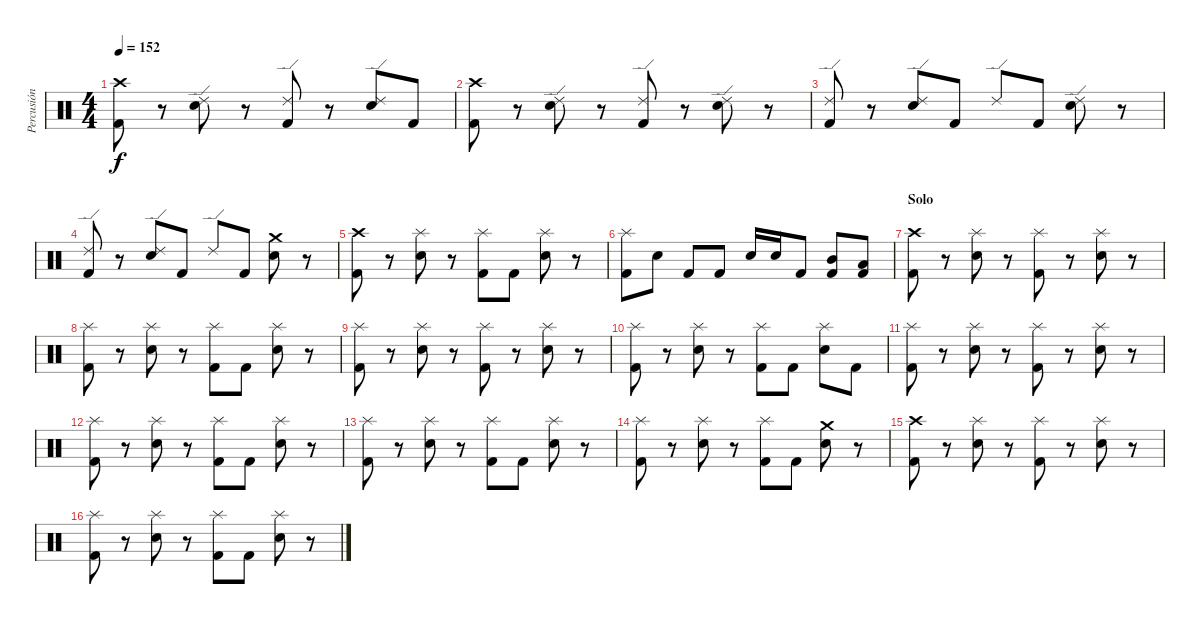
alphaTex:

\track ("Percusión" "Percusión") {instrument percussion}
\staff {score}
\articulation defaults
\ts (4 4)
\tempo 152
\clef neutral
\ks c
("Crash high (hit)" "Kick (hit) 2").8{dy f} r.8 ("Ride (edge) 2" "Snare (hit) 2").8 r.8 ("Ride (edge) 2" "Kick (hit) 2").8 r.8 ("Ride (edge) 2" "Snare (hit) 2").8 "Kick (hit) 2".8 |
("Crash high (hit)" "Kick (hit) 2").8 r.8 ("Ride (edge) 2" "Snare (hit) 2").8 r.8 ("Ride (edge) 2" "Kick (hit) 2").8 r.8 ("Ride (edge) 2" "Snare (hit) 2").8 r.8 |
("Ride (edge) 2" "Kick (hit) 2").8 r.8 ("Ride (edge) 2" "Snare (hit) 2").8 "Kick (hit) 2".8 "Ride (edge) 2".8 "Kick (hit) 2".8 ("Ride (edge) 2" "Snare (hit) 2").8 r.8 |
("Ride (edge) 2" "Kick (hit) 2").8 r.8 ("Ride (edge) 2" "Snare (hit) 2").8 "Kick (hit) 2".8 "Ride (edge) 2".8 "Kick (hit) 2".8 ("Crash medium (hit)" "Snare (hit) 2").8 r.8 |
("Crash high (hit)" "Kick (hit) 2").8 r.8 ("Splash (hit)" "Snare (hit) 2").8 r.8 ("Splash (hit)" "Kick (hit) 2").8 "Kick (hit) 2".8 ("Splash (hit)" "Snare (hit) 2").8 r.8 |
("Splash (hit)" "Kick (hit) 2").8 "Snare (hit) 2".8 "Kick (hit) 2".8 "Kick (hit) 2".8 "Snare (hit) 2".16 "Snare (hit) 2".16 "Kick (hit) 2".8 ("Mid Tom (hit)" "Kick (hit) 2").8 ("Low Tom (hit)" "Kick (hit) 2").8 |
\section ("" "Solo")
("Crash high (hit)" "Kick (hit) 2").8 r.8 ("Splash (hit)" "Snare (hit) 2").8 r.8 ("Splash (hit)" "Kick (hit) 2").8 r.8 ("Splash (hit)" "Snare (hit) 2").8 r.8 |
("Splash (hit)" "Kick (hit) 2").8 r.8 ("Splash (hit)" "Snare (hit) 2").8 r.8 ("Splash (hit)" "Kick (hit) 2").8 "Kick (hit) 2".8 ("Splash (hit)" "Snare (hit) 2").8 r.8 |
("Splash (hit)" "Kick (hit) 2").8 r.8 ("Splash (hit)" "Snare (hit) 2").8 r.8 ("Splash (hit)" "Kick (hit) 2").8 r.8 ("Splash (hit)" "Snare (hit) 2").8 r.8 |
("Splash (hit)" "Kick (hit) 2").8 r.8 ("Splash (hit)" "Snare (hit) 2").8 r.8 ("Splash (hit)" "Kick (hit) 2").8 "Kick (hit) 2".8 ("Splash (hit)" "Snare (hit) 2").8 "Kick (hit) 2".8 |
("Splash (hit)" "Kick (hit) 2").8 r.8 ("Splash (hit)" "Snare (hit) 2").8 r.8 ("Splash (hit)" "Kick (hit) 2").8 r.8 ("Splash (hit)" "Snare (hit) 2").8 r.8 |
("Splash (hit)" "Kick (hit) 2").8 r.8 ("Splash (hit)" "Snare (hit) 2").8 r.8 ("Splash (hit)" "Kick (hit) 2").8 "Kick (hit) 2".8 ("Splash (hit)" "Snare (hit) 2").8 r.8 |
("Splash (hit)" "Kick (hit) 2").8 r.8 ("Splash (hit)" "Snare (hit) 2").8 r.8 ("Splash (hit)" "Kick (hit) 2").8 "Kick (hit) 2".8 ("Splash (hit)" "Snare (hit) 2").8 r.8 |
("Splash (hit)" "Kick (hit) 2").8 r.8 ("Splash (hit)" "Snare (hit) 2").8 r.8 ("Splash (hit)" "Kick (hit) 2").8 "Kick (hit) 2".8 ("Crash medium (hit)" "Snare (hit) 2").8 r.8 |
("Crash high (hit)" "Kick (hit) 2").8 r.8 ("Splash (hit)" "Snare (hit) 2").8 r.8 ("Splash (hit)" "Kick (hit) 2").8 r.8 ("Splash (hit)" "Snare (hit) 2").8 r.8 |
("Splash (hit)" "Kick (hit) 2").8 r.8 ("Splash (hit)" "Snare (hit) 2").8 r.8 ("Splash (hit)" "Kick (hit) 2").8 "Kick (hit) 2".8 ("Splash (hit)" "Snare (hit) 2").8 r.8
